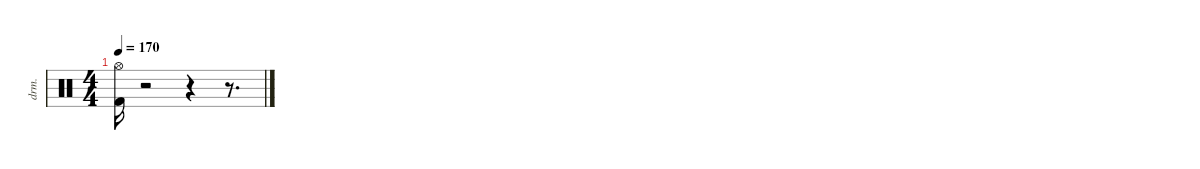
\defaultSystemsLayout 4
\hideDynamics
\bracketExtendMode nobrackets
\otherSystemsTrackNameOrientation horizontal
\track ("Kontakt" "drm.") {instrument percussion}
\staff {score}
\articulation defaults
\ts (4 4)
\tempo 170
\clef neutral
\ks c
("Kick (hit) 2" "Hi-Hat (open)"{acc #}).16{dy ff beam Down} r.2{beam Down} r.4{beam Down} r.8{d beam Down}
